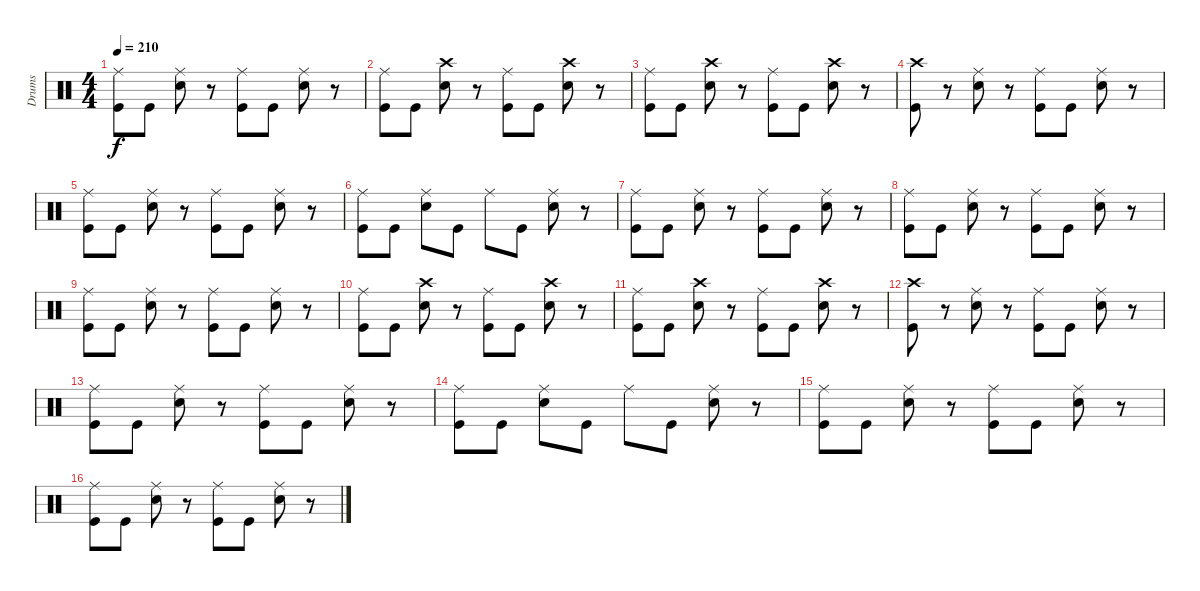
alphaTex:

\track ("Drums" "Drums") {instrument percussion}
\staff {score}
\articulation defaults
\ts (4 4)
\tempo 210
\clef neutral
\ks c
("Ride (middle)" "Kick (hit)").8{dy f} "Kick (hit)".8 ("Ride (middle)" "Snare (hit) 2").8 r.8 ("Ride (middle)" "Kick (hit)").8 "Kick (hit)".8 ("Ride (middle)" "Snare (hit) 2").8 r.8 |
("Ride (middle)" "Kick (hit)").8 "Kick (hit)".8 ("Crash high (hit)" "Snare (hit) 2").8 r.8 ("Ride (middle)" "Kick (hit)").8 "Kick (hit)".8 ("Crash high (hit)" "Snare (hit) 2").8 r.8 |
("Ride (middle)" "Kick (hit)").8 "Kick (hit)".8 ("Crash high (hit)" "Snare (hit) 2").8 r.8 ("Ride (middle)" "Kick (hit)").8 "Kick (hit)".8 ("Crash high (hit)" "Snare (hit) 2").8 r.8 |
("Crash high (hit)" "Kick (hit)").8 r.8 ("Ride (middle)" "Snare (hit) 2").8 r.8 ("Ride (middle)" "Kick (hit)").8 "Kick (hit)".8 ("Ride (middle)" "Snare (hit) 2").8 r.8 |
("Ride (middle)" "Kick (hit)").8 "Kick (hit)".8 ("Ride (middle)" "Snare (hit) 2").8 r.8 ("Ride (middle)" "Kick (hit)").8 "Kick (hit)".8 ("Ride (middle)" "Snare (hit) 2").8 r.8 |
("Ride (middle)" "Kick (hit)").8 "Kick (hit)".8 ("Ride (middle)" "Snare (hit) 2").8 "Kick (hit)".8 "Ride (middle)".8 "Kick (hit)".8 ("Ride (middle)" "Snare (hit) 2").8 r.8 |
("Ride (middle)" "Kick (hit)").8 "Kick (hit)".8 ("Ride (middle)" "Snare (hit) 2").8 r.8 ("Ride (middle)" "Kick (hit)").8 "Kick (hit)".8 ("Ride (middle)" "Snare (hit) 2").8 r.8 |
("Ride (middle)" "Kick (hit)").8 "Kick (hit)".8 ("Ride (middle)" "Snare (hit) 2").8 r.8 ("Ride (middle)" "Kick (hit)").8 "Kick (hit)".8 ("Ride (middle)" "Snare (hit) 2").8 r.8 |
("Ride (middle)" "Kick (hit)").8 "Kick (hit)".8 ("Ride (middle)" "Snare (hit) 2").8 r.8 ("Ride (middle)" "Kick (hit)").8 "Kick (hit)".8 ("Ride (middle)" "Snare (hit) 2").8 r.8 |
("Ride (middle)" "Kick (hit)").8 "Kick (hit)".8 ("Crash high (hit)" "Snare (hit) 2").8 r.8 ("Ride (middle)" "Kick (hit)").8 "Kick (hit)".8 ("Crash high (hit)" "Snare (hit) 2").8 r.8 |
("Ride (middle)" "Kick (hit)").8 "Kick (hit)".8 ("Crash high (hit)" "Snare (hit) 2").8 r.8 ("Ride (middle)" "Kick (hit)").8 "Kick (hit)".8 ("Crash high (hit)" "Snare (hit) 2").8 r.8 |
("Crash high (hit)" "Kick (hit)").8 r.8 ("Ride (middle)" "Snare (hit) 2").8 r.8 ("Ride (middle)" "Kick (hit)").8 "Kick (hit)".8 ("Ride (middle)" "Snare (hit) 2").8 r.8 |
("Ride (middle)" "Kick (hit)").8 "Kick (hit)".8 ("Ride (middle)" "Snare (hit) 2").8 r.8 ("Ride (middle)" "Kick (hit)").8 "Kick (hit)".8 ("Ride (middle)" "Snare (hit) 2").8 r.8 |
("Ride (middle)" "Kick (hit)").8 "Kick (hit)".8 ("Ride (middle)" "Snare (hit) 2").8 "Kick (hit)".8 "Ride (middle)".8 "Kick (hit)".8 ("Ride (middle)" "Snare (hit) 2").8 r.8 |
("Ride (middle)" "Kick (hit)").8 "Kick (hit)".8 ("Ride (middle)" "Snare (hit) 2").8 r.8 ("Ride (middle)" "Kick (hit)").8 "Kick (hit)".8 ("Ride (middle)" "Snare (hit) 2").8 r.8 |
("Ride (middle)" "Kick (hit)").8 "Kick (hit)".8 ("Ride (middle)" "Snare (hit) 2").8 r.8 ("Ride (middle)" "Kick (hit)").8 "Kick (hit)".8 ("Ride (middle)" "Snare (hit) 2").8 r.8
